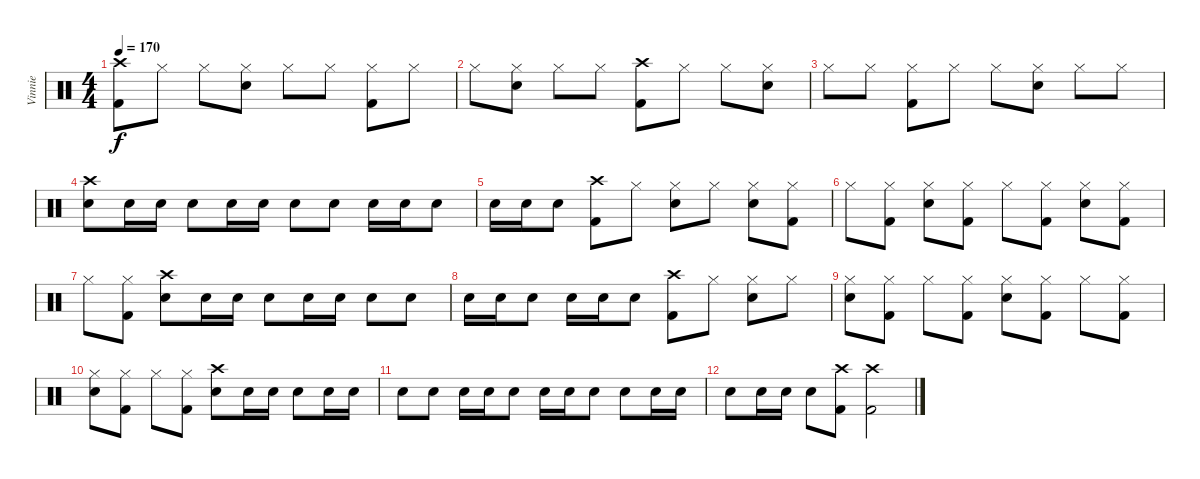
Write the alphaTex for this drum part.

\track ("Vinnie" "Vinnie") {instrument percussion}
\staff {score}
\articulation defaults
\ts (4 4)
\tempo 170
\clef neutral
\ks c
("Crash high (hit)" "Kick (hit) 2").8{dy f} "Hi-Hat (closed)".8 "Hi-Hat (closed)".8 ("Hi-Hat (closed)" "Electric Snare (hit)").8 "Hi-Hat (closed)".8 "Hi-Hat (closed)".8 ("Hi-Hat (closed)" "Kick (hit) 2").8 "Hi-Hat (closed)".8 |
"Hi-Hat (closed)".8 ("Hi-Hat (closed)" "Electric Snare (hit)").8 "Hi-Hat (closed)".8 "Hi-Hat (closed)".8 ("Crash high (hit)" "Kick (hit) 2").8 "Hi-Hat (closed)".8 "Hi-Hat (closed)".8 ("Hi-Hat (closed)" "Electric Snare (hit)").8 |
"Hi-Hat (closed)".8 "Hi-Hat (closed)".8 ("Hi-Hat (closed)" "Kick (hit) 2").8 "Hi-Hat (closed)".8 "Hi-Hat (closed)".8 ("Hi-Hat (closed)" "Electric Snare (hit)").8 "Hi-Hat (closed)".8 "Hi-Hat (closed)".8 |
("Crash high (hit)" "Electric Snare (hit)").8 "Electric Snare (hit)".16 "Electric Snare (hit)".16 "Electric Snare (hit)".8 "Electric Snare (hit)".16 "Electric Snare (hit)".16 "Electric Snare (hit)".8 "Electric Snare (hit)".8 "Electric Snare (hit)".16 "Electric Snare (hit)".16 "Electric Snare (hit)".8 |
"Electric Snare (hit)".16 "Electric Snare (hit)".16 "Electric Snare (hit)".8 ("Crash high (hit)" "Kick (hit) 2").8 "Hi-Hat (closed)".8 ("Hi-Hat (closed)" "Electric Snare (hit)").8 "Hi-Hat (closed)".8 ("Hi-Hat (closed)" "Electric Snare (hit)").8 ("Hi-Hat (closed)" "Kick (hit) 2").8 |
"Hi-Hat (closed)".8 ("Hi-Hat (closed)" "Kick (hit) 2").8 ("Hi-Hat (closed)" "Electric Snare (hit)").8 ("Hi-Hat (closed)" "Kick (hit) 2").8 "Hi-Hat (closed)".8 ("Hi-Hat (closed)" "Kick (hit) 2").8 ("Hi-Hat (closed)" "Electric Snare (hit)").8 ("Hi-Hat (closed)" "Kick (hit) 2").8 |
"Hi-Hat (closed)".8 ("Hi-Hat (closed)" "Kick (hit) 2").8 ("Crash high (hit)" "Electric Snare (hit)").8 "Electric Snare (hit)".16 "Electric Snare (hit)".16 "Electric Snare (hit)".8 "Electric Snare (hit)".16 "Electric Snare (hit)".16 "Electric Snare (hit)".8 "Electric Snare (hit)".8 |
"Electric Snare (hit)".16 "Electric Snare (hit)".16 "Electric Snare (hit)".8 "Electric Snare (hit)".16 "Electric Snare (hit)".16 "Electric Snare (hit)".8 ("Crash high (hit)" "Kick (hit) 2").8 "Hi-Hat (closed)".8 ("Hi-Hat (closed)" "Electric Snare (hit)").8 "Hi-Hat (closed)".8 |
("Hi-Hat (closed)" "Electric Snare (hit)").8 ("Hi-Hat (closed)" "Kick (hit) 2").8 "Hi-Hat (closed)".8 ("Hi-Hat (closed)" "Kick (hit) 2").8 ("Hi-Hat (closed)" "Electric Snare (hit)").8 ("Hi-Hat (closed)" "Kick (hit) 2").8 "Hi-Hat (closed)".8 ("Hi-Hat (closed)" "Kick (hit) 2").8 |
("Hi-Hat (closed)" "Electric Snare (hit)").8 ("Hi-Hat (closed)" "Kick (hit) 2").8 "Hi-Hat (closed)".8 ("Hi-Hat (closed)" "Kick (hit) 2").8 ("Crash high (hit)" "Electric Snare (hit)").8 "Electric Snare (hit)".16 "Electric Snare (hit)".16 "Electric Snare (hit)".8 "Electric Snare (hit)".16 "Electric Snare (hit)".16 |
"Electric Snare (hit)".8 "Electric Snare (hit)".8 "Electric Snare (hit)".16 "Electric Snare (hit)".16 "Electric Snare (hit)".8 "Electric Snare (hit)".16 "Electric Snare (hit)".16 "Electric Snare (hit)".8 "Electric Snare (hit)".8 "Electric Snare (hit)".16 "Electric Snare (hit)".16 |
"Electric Snare (hit)".8 "Electric Snare (hit)".16 "Electric Snare (hit)".16 "Electric Snare (hit)".8 ("Crash high (hit)" "Kick (hit) 2").8 ("Crash high (hit)" "Kick (hit) 2").2
